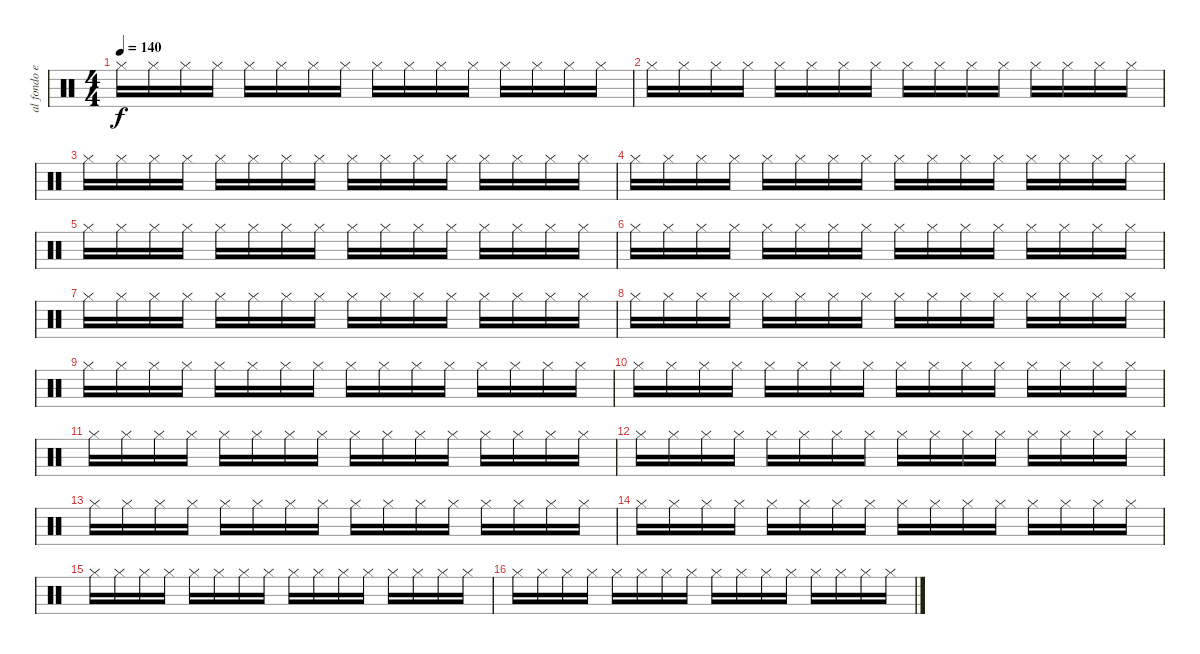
\track ("al fondo en la bateria Mr Pedro Andreu" "al fondo e") {instrument percussion}
\staff {score}
\articulation defaults
\ts (4 4)
\tempo 140
\clef neutral
\ks c "Hi-Hat (closed)".16{dy f} "Hi-Hat (closed)".16 "Hi-Hat (closed)".16 "Hi-Hat (closed)".16 "Hi-Hat (closed)".16 "Hi-Hat (closed)".16 "Hi-Hat (closed)".16 "Hi-Hat (closed)".16 "Hi-Hat (closed)".16 "Hi-Hat (closed)".16 "Hi-Hat (closed)".16 "Hi-Hat (closed)".16 "Hi-Hat (closed)".16 "Hi-Hat (closed)".16 "Hi-Hat (closed)".16 "Hi-Hat (closed)".16
|
"Hi-Hat (closed)".16 "Hi-Hat (closed)".16 "Hi-Hat (closed)".16 "Hi-Hat (closed)".16 "Hi-Hat (closed)".16 "Hi-Hat (closed)".16 "Hi-Hat (closed)".16 "Hi-Hat (closed)".16 "Hi-Hat (closed)".16 "Hi-Hat (closed)".16 "Hi-Hat (closed)".16 "Hi-Hat (closed)".16 "Hi-Hat (closed)".16 "Hi-Hat (closed)".16 "Hi-Hat (closed)".16 "Hi-Hat (closed)".16 |
"Hi-Hat (closed)".16 "Hi-Hat (closed)".16 "Hi-Hat (closed)".16 "Hi-Hat (closed)".16 "Hi-Hat (closed)".16 "Hi-Hat (closed)".16 "Hi-Hat (closed)".16 "Hi-Hat (closed)".16 "Hi-Hat (closed)".16 "Hi-Hat (closed)".16 "Hi-Hat (closed)".16 "Hi-Hat (closed)".16 "Hi-Hat (closed)".16 "Hi-Hat (closed)".16 "Hi-Hat (closed)".16 "Hi-Hat (closed)".16 |
"Hi-Hat (closed)".16 "Hi-Hat (closed)".16 "Hi-Hat (closed)".16 "Hi-Hat (closed)".16 "Hi-Hat (closed)".16 "Hi-Hat (closed)".16 "Hi-Hat (closed)".16 "Hi-Hat (closed)".16 "Hi-Hat (closed)".16 "Hi-Hat (closed)".16 "Hi-Hat (closed)".16 "Hi-Hat (closed)".16 "Hi-Hat (closed)".16 "Hi-Hat (closed)".16 "Hi-Hat (closed)".16 "Hi-Hat (closed)".16 |
"Hi-Hat (closed)".16 "Hi-Hat (closed)".16 "Hi-Hat (closed)".16 "Hi-Hat (closed)".16 "Hi-Hat (closed)".16 "Hi-Hat (closed)".16 "Hi-Hat (closed)".16 "Hi-Hat (closed)".16 "Hi-Hat (closed)".16 "Hi-Hat (closed)".16 "Hi-Hat (closed)".16 "Hi-Hat (closed)".16 "Hi-Hat (closed)".16 "Hi-Hat (closed)".16 "Hi-Hat (closed)".16 "Hi-Hat (closed)".16 |
"Hi-Hat (closed)".16 "Hi-Hat (closed)".16 "Hi-Hat (closed)".16 "Hi-Hat (closed)".16 "Hi-Hat (closed)".16 "Hi-Hat (closed)".16 "Hi-Hat (closed)".16 "Hi-Hat (closed)".16 "Hi-Hat (closed)".16 "Hi-Hat (closed)".16 "Hi-Hat (closed)".16 "Hi-Hat (closed)".16 "Hi-Hat (closed)".16 "Hi-Hat (closed)".16 "Hi-Hat (closed)".16 "Hi-Hat (closed)".16 |
"Hi-Hat (closed)".16 "Hi-Hat (closed)".16 "Hi-Hat (closed)".16 "Hi-Hat (closed)".16 "Hi-Hat (closed)".16 "Hi-Hat (closed)".16 "Hi-Hat (closed)".16 "Hi-Hat (closed)".16 "Hi-Hat (closed)".16 "Hi-Hat (closed)".16 "Hi-Hat (closed)".16 "Hi-Hat (closed)".16 "Hi-Hat (closed)".16 "Hi-Hat (closed)".16 "Hi-Hat (closed)".16 "Hi-Hat (closed)".16 |
"Hi-Hat (closed)".16 "Hi-Hat (closed)".16 "Hi-Hat (closed)".16 "Hi-Hat (closed)".16 "Hi-Hat (closed)".16 "Hi-Hat (closed)".16 "Hi-Hat (closed)".16 "Hi-Hat (closed)".16 "Hi-Hat (closed)".16 "Hi-Hat (closed)".16 "Hi-Hat (closed)".16 "Hi-Hat (closed)".16 "Hi-Hat (closed)".16 "Hi-Hat (closed)".16 "Hi-Hat (closed)".16 "Hi-Hat (closed)".16 |
"Hi-Hat (closed)".16 "Hi-Hat (closed)".16 "Hi-Hat (closed)".16 "Hi-Hat (closed)".16 "Hi-Hat (closed)".16 "Hi-Hat (closed)".16 "Hi-Hat (closed)".16 "Hi-Hat (closed)".16 "Hi-Hat (closed)".16 "Hi-Hat (closed)".16 "Hi-Hat (closed)".16 "Hi-Hat (closed)".16 "Hi-Hat (closed)".16 "Hi-Hat (closed)".16 "Hi-Hat (closed)".16 "Hi-Hat (closed)".16 |
"Hi-Hat (closed)".16 "Hi-Hat (closed)".16 "Hi-Hat (closed)".16 "Hi-Hat (closed)".16 "Hi-Hat (closed)".16 "Hi-Hat (closed)".16 "Hi-Hat (closed)".16 "Hi-Hat (closed)".16 "Hi-Hat (closed)".16 "Hi-Hat (closed)".16 "Hi-Hat (closed)".16 "Hi-Hat (closed)".16 "Hi-Hat (closed)".16 "Hi-Hat (closed)".16 "Hi-Hat (closed)".16 "Hi-Hat (closed)".16 |
"Hi-Hat (closed)".16 "Hi-Hat (closed)".16 "Hi-Hat (closed)".16 "Hi-Hat (closed)".16 "Hi-Hat (closed)".16 "Hi-Hat (closed)".16 "Hi-Hat (closed)".16 "Hi-Hat (closed)".16 "Hi-Hat (closed)".16 "Hi-Hat (closed)".16 "Hi-Hat (closed)".16 "Hi-Hat (closed)".16 "Hi-Hat (closed)".16 "Hi-Hat (closed)".16 "Hi-Hat (closed)".16 "Hi-Hat (closed)".16 |
"Hi-Hat (closed)".16 "Hi-Hat (closed)".16 "Hi-Hat (closed)".16 "Hi-Hat (closed)".16 "Hi-Hat (closed)".16 "Hi-Hat (closed)".16 "Hi-Hat (closed)".16 "Hi-Hat (closed)".16 "Hi-Hat (closed)".16 "Hi-Hat (closed)".16 "Hi-Hat (closed)".16 "Hi-Hat (closed)".16 "Hi-Hat (closed)".16 "Hi-Hat (closed)".16 "Hi-Hat (closed)".16 "Hi-Hat (closed)".16 |
"Hi-Hat (closed)".16 "Hi-Hat (closed)".16 "Hi-Hat (closed)".16 "Hi-Hat (closed)".16 "Hi-Hat (closed)".16 "Hi-Hat (closed)".16 "Hi-Hat (closed)".16 "Hi-Hat (closed)".16 "Hi-Hat (closed)".16 "Hi-Hat (closed)".16 "Hi-Hat (closed)".16 "Hi-Hat (closed)".16 "Hi-Hat (closed)".16 "Hi-Hat (closed)".16 "Hi-Hat (closed)".16 "Hi-Hat (closed)".16 |
"Hi-Hat (closed)".16 "Hi-Hat (closed)".16 "Hi-Hat (closed)".16 "Hi-Hat (closed)".16 "Hi-Hat (closed)".16 "Hi-Hat (closed)".16 "Hi-Hat (closed)".16 "Hi-Hat (closed)".16 "Hi-Hat (closed)".16 "Hi-Hat (closed)".16 "Hi-Hat (closed)".16 "Hi-Hat (closed)".16 "Hi-Hat (closed)".16 "Hi-Hat (closed)".16 "Hi-Hat (closed)".16 "Hi-Hat (closed)".16 |
"Hi-Hat (closed)".16 "Hi-Hat (closed)".16 "Hi-Hat (closed)".16 "Hi-Hat (closed)".16 "Hi-Hat (closed)".16 "Hi-Hat (closed)".16 "Hi-Hat (closed)".16 "Hi-Hat (closed)".16 "Hi-Hat (closed)".16 "Hi-Hat (closed)".16 "Hi-Hat (closed)".16 "Hi-Hat (closed)".16 "Hi-Hat (closed)".16 "Hi-Hat (closed)".16 "Hi-Hat (closed)".16 "Hi-Hat (closed)".16 |
"Hi-Hat (closed)".16 "Hi-Hat (closed)".16 "Hi-Hat (closed)".16 "Hi-Hat (closed)".16 "Hi-Hat (closed)".16 "Hi-Hat (closed)".16 "Hi-Hat (closed)".16 "Hi-Hat (closed)".16 "Hi-Hat (closed)".16 "Hi-Hat (closed)".16 "Hi-Hat (closed)".16 "Hi-Hat (closed)".16 "Hi-Hat (closed)".16 "Hi-Hat (closed)".16 "Hi-Hat (closed)".16 "Hi-Hat (closed)".16
